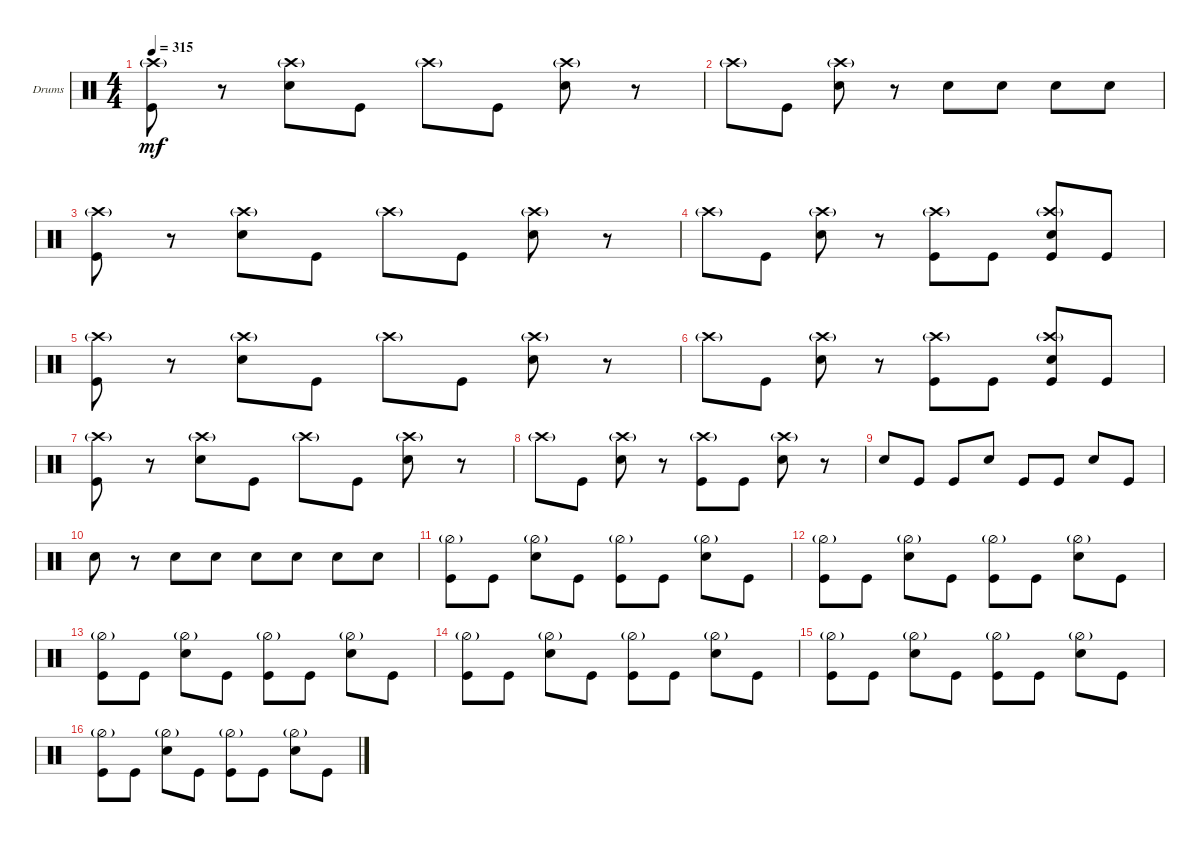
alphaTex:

\bracketExtendMode groupsimilarinstruments
\firstSystemTrackNameOrientation horizontal
\otherSystemsTrackNameOrientation horizontal
\track ("Drumkit" "Drums") {instrument percussion}
\staff {score}
\articulation defaults
\ts (4 4)
\tempo 315
\clef neutral
\ks c
("Kick (hit)" "Crash high (hit)"{g}).8{dy mf} r.8 ("Snare (hit) 2" "Crash high (hit)"{g}).8 "Kick (hit)".8 "Crash high (hit)"{g}.8 "Kick (hit)".8 ("Snare (hit) 2" "Crash high (hit)"{g}).8 r.8 |
"Crash high (hit)"{g}.8 "Kick (hit)".8 ("Snare (hit) 2" "Crash high (hit)"{g}).8 r.8 "Snare (hit) 2".8 "Snare (hit) 2".8 "Snare (hit) 2".8 "Snare (hit) 2".8 |
("Kick (hit)" "Crash high (hit)"{g}).8 r.8 ("Snare (hit) 2" "Crash high (hit)"{g}).8 "Kick (hit)".8 "Crash high (hit)"{g}.8 "Kick (hit)".8 ("Snare (hit) 2" "Crash high (hit)"{g}).8 r.8 |
"Crash high (hit)"{g}.8 "Kick (hit)".8 ("Snare (hit) 2" "Crash high (hit)"{g}).8 r.8 ("Kick (hit)" "Crash high (hit)"{g}).8 "Kick (hit)".8 ("Snare (hit) 2" "Crash high (hit)"{g} "Kick (hit)").8 "Kick (hit)".8 |
("Kick (hit)" "Crash high (hit)"{g}).8 r.8 ("Snare (hit) 2" "Crash high (hit)"{g}).8 "Kick (hit)".8 "Crash high (hit)"{g}.8 "Kick (hit)".8 ("Snare (hit) 2" "Crash high (hit)"{g}).8 r.8 |
"Crash high (hit)"{g}.8 "Kick (hit)".8 ("Snare (hit) 2" "Crash high (hit)"{g}).8 r.8 ("Kick (hit)" "Crash high (hit)"{g}).8 "Kick (hit)".8 ("Snare (hit) 2" "Crash high (hit)"{g} "Kick (hit)").8 "Kick (hit)".8 |
("Kick (hit)" "Crash high (hit)"{g}).8 r.8 ("Snare (hit) 2" "Crash high (hit)"{g}).8 "Kick (hit)".8 "Crash high (hit)"{g}.8 "Kick (hit)".8 ("Snare (hit) 2" "Crash high (hit)"{g}).8 r.8 |
"Crash high (hit)"{g}.8 "Kick (hit)".8 ("Snare (hit) 2" "Crash high (hit)"{g}).8 r.8 ("Kick (hit)" "Crash high (hit)"{g}).8 "Kick (hit)".8 ("Snare (hit) 2" "Crash high (hit)"{g}).8 r.8 |
"Snare (hit) 2".8 "Kick (hit)".8 "Kick (hit)".8 "Snare (hit) 2".8 "Kick (hit)".8 "Kick (hit)".8 "Snare (hit) 2".8 "Kick (hit)".8 |
"Snare (hit) 2".8 r.8 "Snare (hit) 2".8 "Snare (hit) 2".8 "Snare (hit) 2".8 "Snare (hit) 2".8 "Snare (hit) 2".8 "Snare (hit) 2".8 |
("Kick (hit)" "Hi-Hat (half)"{g}).8 "Kick (hit)".8 ("Snare (hit) 2" "Hi-Hat (half)"{g}).8 "Kick (hit)".8 ("Kick (hit)" "Hi-Hat (half)"{g}).8 "Kick (hit)".8 ("Snare (hit) 2" "Hi-Hat (half)"{g}).8 "Kick (hit)".8 |
("Kick (hit)" "Hi-Hat (half)"{g}).8 "Kick (hit)".8 ("Snare (hit) 2" "Hi-Hat (half)"{g}).8 "Kick (hit)".8 ("Kick (hit)" "Hi-Hat (half)"{g}).8 "Kick (hit)".8 ("Snare (hit) 2" "Hi-Hat (half)"{g}).8 "Kick (hit)".8 |
("Kick (hit)" "Hi-Hat (half)"{g}).8 "Kick (hit)".8 ("Snare (hit) 2" "Hi-Hat (half)"{g}).8 "Kick (hit)".8 ("Kick (hit)" "Hi-Hat (half)"{g}).8 "Kick (hit)".8 ("Snare (hit) 2" "Hi-Hat (half)"{g}).8 "Kick (hit)".8 |
("Kick (hit)" "Hi-Hat (half)"{g}).8 "Kick (hit)".8 ("Snare (hit) 2" "Hi-Hat (half)"{g}).8 "Kick (hit)".8 ("Kick (hit)" "Hi-Hat (half)"{g}).8 "Kick (hit)".8 ("Snare (hit) 2" "Hi-Hat (half)"{g}).8 "Kick (hit)".8 |
("Kick (hit)" "Hi-Hat (half)"{g}).8 "Kick (hit)".8 ("Snare (hit) 2" "Hi-Hat (half)"{g}).8 "Kick (hit)".8 ("Kick (hit)" "Hi-Hat (half)"{g}).8 "Kick (hit)".8 ("Snare (hit) 2" "Hi-Hat (half)"{g}).8 "Kick (hit)".8 |
("Kick (hit)" "Hi-Hat (half)"{g}).8 "Kick (hit)".8 ("Snare (hit) 2" "Hi-Hat (half)"{g}).8 "Kick (hit)".8 ("Kick (hit)" "Hi-Hat (half)"{g}).8 "Kick (hit)".8 ("Snare (hit) 2" "Hi-Hat (half)"{g}).8 "Kick (hit)".8
